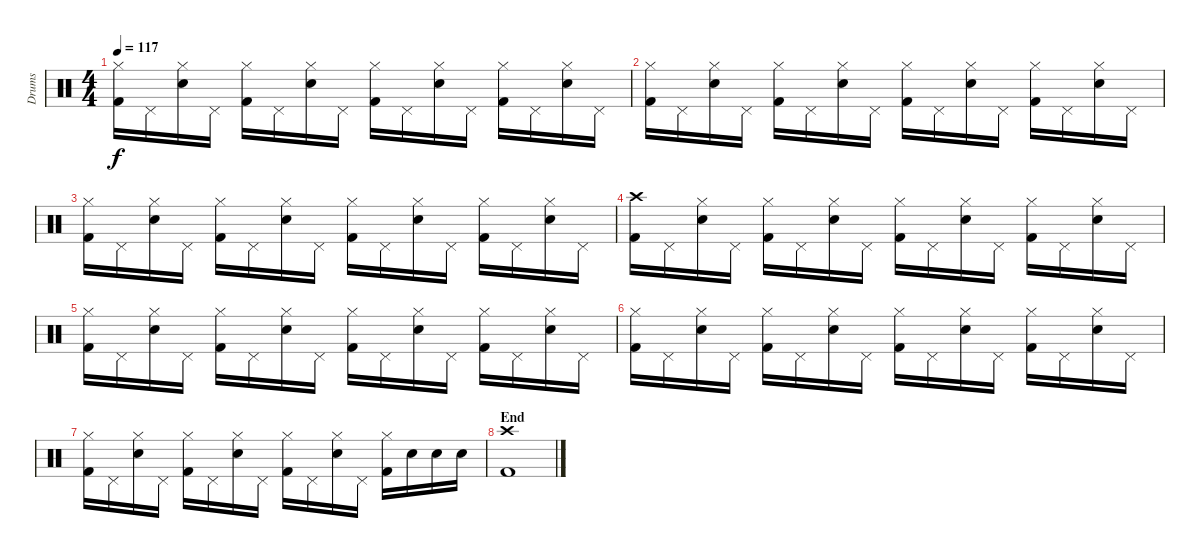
\track ("Drums" "Drums") {instrument percussion}
\staff {score}
\articulation defaults
\ts (4 4)
\tempo 117
\clef neutral
\ks c
("Hi-Hat (closed)" "Kick (hit) 2").16{dy f} "Pedal Hi-Hat (hit)".16 ("Hi-Hat (closed)" "Electric Snare (hit)").16 "Pedal Hi-Hat (hit)".16 ("Hi-Hat (closed)" "Kick (hit) 2").16 "Pedal Hi-Hat (hit)".16 ("Hi-Hat (closed)" "Electric Snare (hit)").16 "Pedal Hi-Hat (hit)".16 ("Hi-Hat (closed)" "Kick (hit) 2").16 "Pedal Hi-Hat (hit)".16 ("Hi-Hat (closed)" "Electric Snare (hit)").16 "Pedal Hi-Hat (hit)".16 ("Hi-Hat (closed)" "Kick (hit) 2").16 "Pedal Hi-Hat (hit)".16 ("Hi-Hat (closed)" "Electric Snare (hit)").16 "Pedal Hi-Hat (hit)".16 |
("Hi-Hat (closed)" "Kick (hit) 2").16 "Pedal Hi-Hat (hit)".16 ("Hi-Hat (closed)" "Electric Snare (hit)").16 "Pedal Hi-Hat (hit)".16 ("Hi-Hat (closed)" "Kick (hit) 2").16 "Pedal Hi-Hat (hit)".16 ("Hi-Hat (closed)" "Electric Snare (hit)").16 "Pedal Hi-Hat (hit)".16 ("Hi-Hat (closed)" "Kick (hit) 2").16 "Pedal Hi-Hat (hit)".16 ("Hi-Hat (closed)" "Electric Snare (hit)").16 "Pedal Hi-Hat (hit)".16 ("Hi-Hat (closed)" "Kick (hit) 2").16 "Pedal Hi-Hat (hit)".16 ("Hi-Hat (closed)" "Electric Snare (hit)").16 "Pedal Hi-Hat (hit)".16 |
("Hi-Hat (closed)" "Kick (hit) 2").16 "Pedal Hi-Hat (hit)".16 ("Hi-Hat (closed)" "Electric Snare (hit)").16 "Pedal Hi-Hat (hit)".16 ("Hi-Hat (closed)" "Kick (hit) 2").16 "Pedal Hi-Hat (hit)".16 ("Hi-Hat (closed)" "Electric Snare (hit)").16 "Pedal Hi-Hat (hit)".16 ("Hi-Hat (closed)" "Kick (hit) 2").16 "Pedal Hi-Hat (hit)".16 ("Hi-Hat (closed)" "Electric Snare (hit)").16 "Pedal Hi-Hat (hit)".16 ("Hi-Hat (closed)" "Kick (hit) 2").16 "Pedal Hi-Hat (hit)".16 ("Hi-Hat (closed)" "Electric Snare (hit)").16 "Pedal Hi-Hat (hit)".16 |
("Crash high (hit)" "Kick (hit) 2").16 "Pedal Hi-Hat (hit)".16 ("Hi-Hat (closed)" "Electric Snare (hit)").16 "Pedal Hi-Hat (hit)".16 ("Hi-Hat (closed)" "Kick (hit) 2").16 "Pedal Hi-Hat (hit)".16 ("Hi-Hat (closed)" "Electric Snare (hit)").16 "Pedal Hi-Hat (hit)".16 ("Hi-Hat (closed)" "Kick (hit) 2").16 "Pedal Hi-Hat (hit)".16 ("Hi-Hat (closed)" "Electric Snare (hit)").16 "Pedal Hi-Hat (hit)".16 ("Hi-Hat (closed)" "Kick (hit) 2").16 "Pedal Hi-Hat (hit)".16 ("Hi-Hat (closed)" "Electric Snare (hit)").16 "Pedal Hi-Hat (hit)".16 |
("Hi-Hat (closed)" "Kick (hit) 2").16 "Pedal Hi-Hat (hit)".16 ("Hi-Hat (closed)" "Electric Snare (hit)").16 "Pedal Hi-Hat (hit)".16 ("Hi-Hat (closed)" "Kick (hit) 2").16 "Pedal Hi-Hat (hit)".16 ("Hi-Hat (closed)" "Electric Snare (hit)").16 "Pedal Hi-Hat (hit)".16 ("Hi-Hat (closed)" "Kick (hit) 2").16 "Pedal Hi-Hat (hit)".16 ("Hi-Hat (closed)" "Electric Snare (hit)").16 "Pedal Hi-Hat (hit)".16 ("Hi-Hat (closed)" "Kick (hit) 2").16 "Pedal Hi-Hat (hit)".16 ("Hi-Hat (closed)" "Electric Snare (hit)").16 "Pedal Hi-Hat (hit)".16 |
("Hi-Hat (closed)" "Kick (hit) 2").16 "Pedal Hi-Hat (hit)".16 ("Hi-Hat (closed)" "Electric Snare (hit)").16 "Pedal Hi-Hat (hit)".16 ("Hi-Hat (closed)" "Kick (hit) 2").16 "Pedal Hi-Hat (hit)".16 ("Hi-Hat (closed)" "Electric Snare (hit)").16 "Pedal Hi-Hat (hit)".16 ("Hi-Hat (closed)" "Kick (hit) 2").16 "Pedal Hi-Hat (hit)".16 ("Hi-Hat (closed)" "Electric Snare (hit)").16 "Pedal Hi-Hat (hit)".16 ("Hi-Hat (closed)" "Kick (hit) 2").16 "Pedal Hi-Hat (hit)".16 ("Hi-Hat (closed)" "Electric Snare (hit)").16 "Pedal Hi-Hat (hit)".16 |
("Hi-Hat (closed)" "Kick (hit) 2").16 "Pedal Hi-Hat (hit)".16 ("Hi-Hat (closed)" "Electric Snare (hit)").16 "Pedal Hi-Hat (hit)".16 ("Hi-Hat (closed)" "Kick (hit) 2").16 "Pedal Hi-Hat (hit)".16 ("Hi-Hat (closed)" "Electric Snare (hit)").16 "Pedal Hi-Hat (hit)".16 ("Hi-Hat (closed)" "Kick (hit) 2").16 "Pedal Hi-Hat (hit)".16 ("Hi-Hat (closed)" "Electric Snare (hit)").16 "Pedal Hi-Hat (hit)".16 ("Hi-Hat (closed)" "Kick (hit) 2").16 "Electric Snare (hit)".16 "Electric Snare (hit)".16 "Electric Snare (hit)".16 |
\section ("" "End")
("Crash high (hit)" "Kick (hit) 2").1
